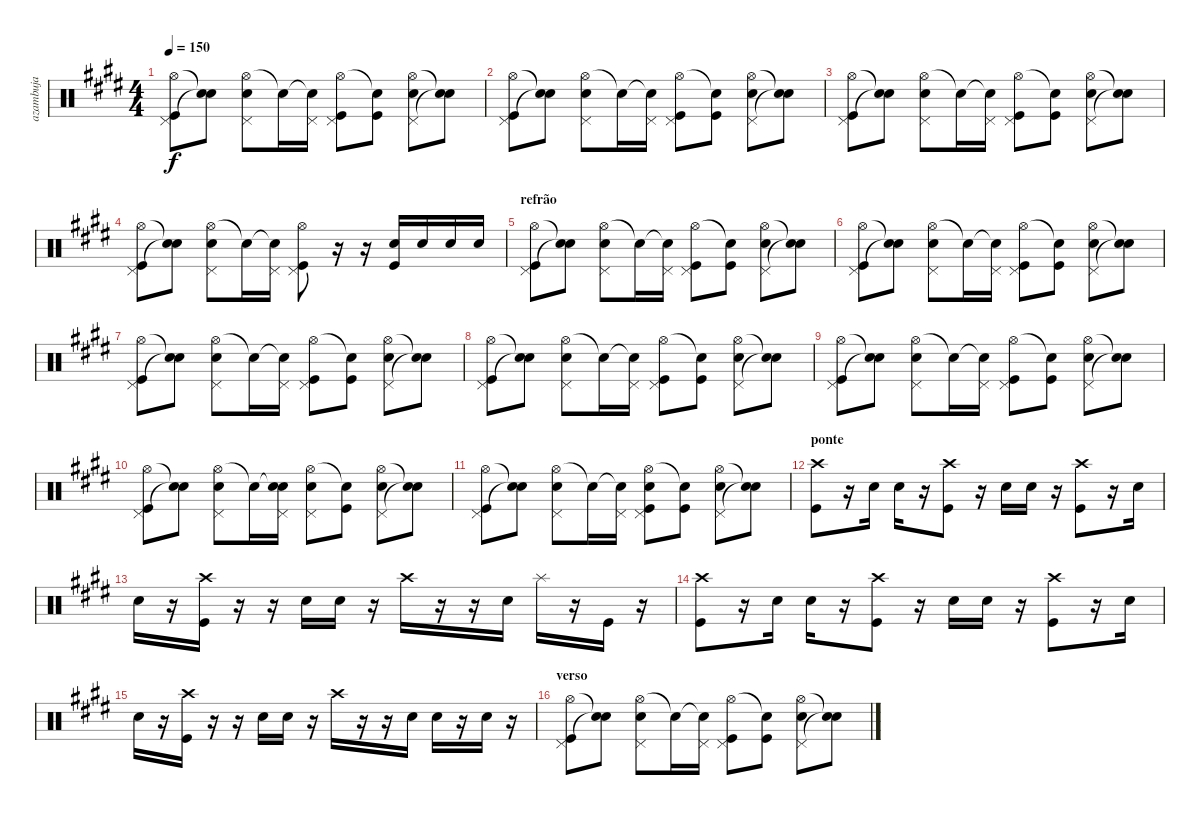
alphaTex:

\track ("azambuja" "azambuja") {instrument percussion}
\staff {score}
\articulation defaults
\ts (4 4)
\tempo 150
\clef neutral
\ks e
("Hi-Hat (open)" "Pedal Hi-Hat (hit)" "Kick (hit)").8{dy f} ("Snare (hit)"{t} "Snare (hit)"{t}).8 ("Hi-Hat (open)" "Pedal Hi-Hat (hit)" "Snare (hit) 2").8 "Snare (hit)"{t}.16 ("Snare (hit)"{t} "Pedal Hi-Hat (hit)").16 ("Hi-Hat (open)" "Pedal Hi-Hat (hit)" "Kick (hit)").8 ("Snare (hit)"{t} "Kick (hit)").8 ("Hi-Hat (open)" "Pedal Hi-Hat (hit)" "Snare (hit) 2").8 ("Snare (hit)"{t} "Snare (hit)"{t}).8 |
("Hi-Hat (open)" "Pedal Hi-Hat (hit)" "Kick (hit)").8 ("Snare (hit)"{t} "Snare (hit)"{t}).8 ("Hi-Hat (open)" "Pedal Hi-Hat (hit)" "Snare (hit) 2").8 "Snare (hit)"{t}.16 ("Snare (hit)"{t} "Pedal Hi-Hat (hit)").16 ("Hi-Hat (open)" "Pedal Hi-Hat (hit)" "Kick (hit)").8 ("Snare (hit)"{t} "Kick (hit)").8 ("Hi-Hat (open)" "Pedal Hi-Hat (hit)" "Snare (hit) 2").8 ("Snare (hit)"{t} "Snare (hit)"{t}).8 |
("Hi-Hat (open)" "Pedal Hi-Hat (hit)" "Kick (hit)").8 ("Snare (hit)"{t} "Snare (hit)"{t}).8 ("Hi-Hat (open)" "Pedal Hi-Hat (hit)" "Snare (hit) 2").8 "Snare (hit)"{t}.16 ("Snare (hit)"{t} "Pedal Hi-Hat (hit)").16 ("Hi-Hat (open)" "Pedal Hi-Hat (hit)" "Kick (hit)").8 ("Snare (hit)"{t} "Kick (hit)").8 ("Hi-Hat (open)" "Pedal Hi-Hat (hit)" "Snare (hit) 2").8 ("Snare (hit)"{t} "Snare (hit)"{t}).8 |
("Hi-Hat (open)" "Pedal Hi-Hat (hit)" "Kick (hit)").8 ("Snare (hit)"{t} "Snare (hit)"{t}).8 ("Hi-Hat (open)" "Pedal Hi-Hat (hit)" "Snare (hit) 2").8 "Snare (hit)"{t}.16 ("Snare (hit)"{t} "Pedal Hi-Hat (hit)").16 ("Hi-Hat (open)" "Pedal Hi-Hat (hit)" "Kick (hit)").8 r.16 r.16 ("Snare (hit) 2" "Kick (hit)").16 "Snare (hit) 2".16 "Snare (hit) 2".16 "Snare (hit) 2".16 |
\section ("" "refrão")
("Hi-Hat (open)" "Pedal Hi-Hat (hit)" "Kick (hit)").8 ("Snare (hit)"{t} "Snare (hit)"{t}).8 ("Hi-Hat (open)" "Pedal Hi-Hat (hit)" "Snare (hit) 2").8 "Snare (hit)"{t}.16 ("Snare (hit)"{t} "Pedal Hi-Hat (hit)").16 ("Hi-Hat (open)" "Pedal Hi-Hat (hit)" "Kick (hit)").8 ("Snare (hit)"{t} "Kick (hit)").8 ("Hi-Hat (open)" "Pedal Hi-Hat (hit)" "Snare (hit) 2").8 ("Snare (hit)"{t} "Snare (hit)"{t}).8 |
("Hi-Hat (open)" "Pedal Hi-Hat (hit)" "Kick (hit)").8 ("Snare (hit)"{t} "Snare (hit)"{t}).8 ("Hi-Hat (open)" "Pedal Hi-Hat (hit)" "Snare (hit) 2").8 "Snare (hit)"{t}.16 ("Snare (hit)"{t} "Pedal Hi-Hat (hit)").16 ("Hi-Hat (open)" "Pedal Hi-Hat (hit)" "Kick (hit)").8 ("Snare (hit)"{t} "Kick (hit)").8 ("Hi-Hat (open)" "Pedal Hi-Hat (hit)" "Snare (hit) 2").8 ("Snare (hit)"{t} "Snare (hit)"{t}).8 |
("Hi-Hat (open)" "Pedal Hi-Hat (hit)" "Kick (hit)").8 ("Snare (hit)"{t} "Snare (hit)"{t}).8 ("Hi-Hat (open)" "Pedal Hi-Hat (hit)" "Snare (hit) 2").8 "Snare (hit)"{t}.16 ("Snare (hit)"{t} "Pedal Hi-Hat (hit)").16 ("Hi-Hat (open)" "Pedal Hi-Hat (hit)" "Kick (hit)").8 ("Snare (hit)"{t} "Kick (hit)").8 ("Hi-Hat (open)" "Pedal Hi-Hat (hit)" "Snare (hit) 2").8 ("Snare (hit)"{t} "Snare (hit)"{t}).8 |
("Hi-Hat (open)" "Pedal Hi-Hat (hit)" "Kick (hit)").8 ("Snare (hit)"{t} "Snare (hit)"{t}).8 ("Hi-Hat (open)" "Pedal Hi-Hat (hit)" "Snare (hit) 2").8 "Snare (hit)"{t}.16 ("Snare (hit)"{t} "Pedal Hi-Hat (hit)").16 ("Hi-Hat (open)" "Pedal Hi-Hat (hit)" "Kick (hit)").8 ("Snare (hit)"{t} "Kick (hit)").8 ("Hi-Hat (open)" "Pedal Hi-Hat (hit)" "Snare (hit) 2").8 ("Snare (hit)"{t} "Snare (hit)"{t}).8 |
("Hi-Hat (open)" "Pedal Hi-Hat (hit)" "Kick (hit)").8 ("Snare (hit)"{t} "Snare (hit)"{t}).8 ("Hi-Hat (open)" "Pedal Hi-Hat (hit)" "Snare (hit) 2").8 "Snare (hit)"{t}.16 ("Snare (hit)"{t} "Pedal Hi-Hat (hit)").16 ("Hi-Hat (open)" "Pedal Hi-Hat (hit)" "Kick (hit)").8 ("Snare (hit)"{t} "Kick (hit)").8 ("Hi-Hat (open)" "Pedal Hi-Hat (hit)" "Snare (hit) 2").8 ("Snare (hit)"{t} "Snare (hit)"{t}).8 |
("Hi-Hat (open)" "Pedal Hi-Hat (hit)" "Kick (hit)").8 ("Snare (hit)"{t} "Snare (hit)"{t}).8 ("Hi-Hat (open)" "Pedal Hi-Hat (hit)" "Snare (hit) 2").8 "Snare (hit)"{t}.16 ("Snare (hit)"{t} "Pedal Hi-Hat (hit)" "Snare (hit) 2").16 ("Hi-Hat (open)" "Pedal Hi-Hat (hit)" "Snare (hit) 2").8 ("Snare (hit)"{t} "Kick (hit)").8 ("Hi-Hat (open)" "Pedal Hi-Hat (hit)" "Snare (hit) 2").8 ("Snare (hit)"{t} "Snare (hit)"{t}).8 |
("Hi-Hat (open)" "Pedal Hi-Hat (hit)" "Kick (hit)").8 ("Snare (hit)"{t} "Snare (hit)"{t}).8 ("Hi-Hat (open)" "Pedal Hi-Hat (hit)" "Snare (hit) 2").8 "Snare (hit)"{t}.16 ("Snare (hit)"{t} "Pedal Hi-Hat (hit)").16 ("Hi-Hat (open)" "Pedal Hi-Hat (hit)" "Snare (hit) 2" "Kick (hit)").8 ("Snare (hit)"{t} "Kick (hit)").8 ("Hi-Hat (open)" "Pedal Hi-Hat (hit)" "Snare (hit) 2").8 ("Snare (hit)"{t} "Snare (hit)"{t}).8 |
\section ("" "ponte")
("Crash high (hit)" "Kick (hit)").8 r.16 "Snare (hit) 2".16 "Snare (hit) 2".16 r.16 ("Crash high (hit)" "Kick (hit)").8 r.16 "Snare (hit) 2".16 "Snare (hit) 2".16 r.16 ("Crash high (hit)" "Kick (hit)").8 r.16 "Snare (hit) 2".16 |
"Snare (hit) 2".16 r.16 ("Crash high (hit)" "Kick (hit)").16 r.16 r.16 "Snare (hit) 2".16 "Snare (hit) 2".16 r.16 "Crash high (hit)".16 r.16 r.16 "Snare (hit) 2".16 "Splash (hit)".16 r.16 "Kick (hit)".16 r.16 |
("Crash high (hit)" "Kick (hit)").8 r.16 "Snare (hit) 2".16 "Snare (hit) 2".16 r.16 ("Crash high (hit)" "Kick (hit)").8 r.16 "Snare (hit) 2".16 "Snare (hit) 2".16 r.16 ("Crash high (hit)" "Kick (hit)").8 r.16 "Snare (hit) 2".16 |
"Snare (hit) 2".16 r.16 ("Crash high (hit)" "Kick (hit)").16 r.16 r.16 "Snare (hit) 2".16 "Snare (hit) 2".16 r.16 "Crash high (hit)".16 r.16 r.16 "Snare (hit) 2".16 "Snare (hit) 2".16 r.16 "Snare (hit) 2".16 r.16 |
\section ("" "verso")
("Hi-Hat (open)" "Pedal Hi-Hat (hit)" "Kick (hit)").8 ("Snare (hit)"{t} "Snare (hit)"{t}).8 ("Hi-Hat (open)" "Pedal Hi-Hat (hit)" "Snare (hit) 2").8 "Snare (hit)"{t}.16 ("Snare (hit)"{t} "Pedal Hi-Hat (hit)").16 ("Hi-Hat (open)" "Pedal Hi-Hat (hit)" "Kick (hit)").8 ("Snare (hit)"{t} "Kick (hit)").8 ("Hi-Hat (open)" "Pedal Hi-Hat (hit)" "Snare (hit) 2").8 ("Snare (hit)"{t} "Snare (hit)"{t}).8
